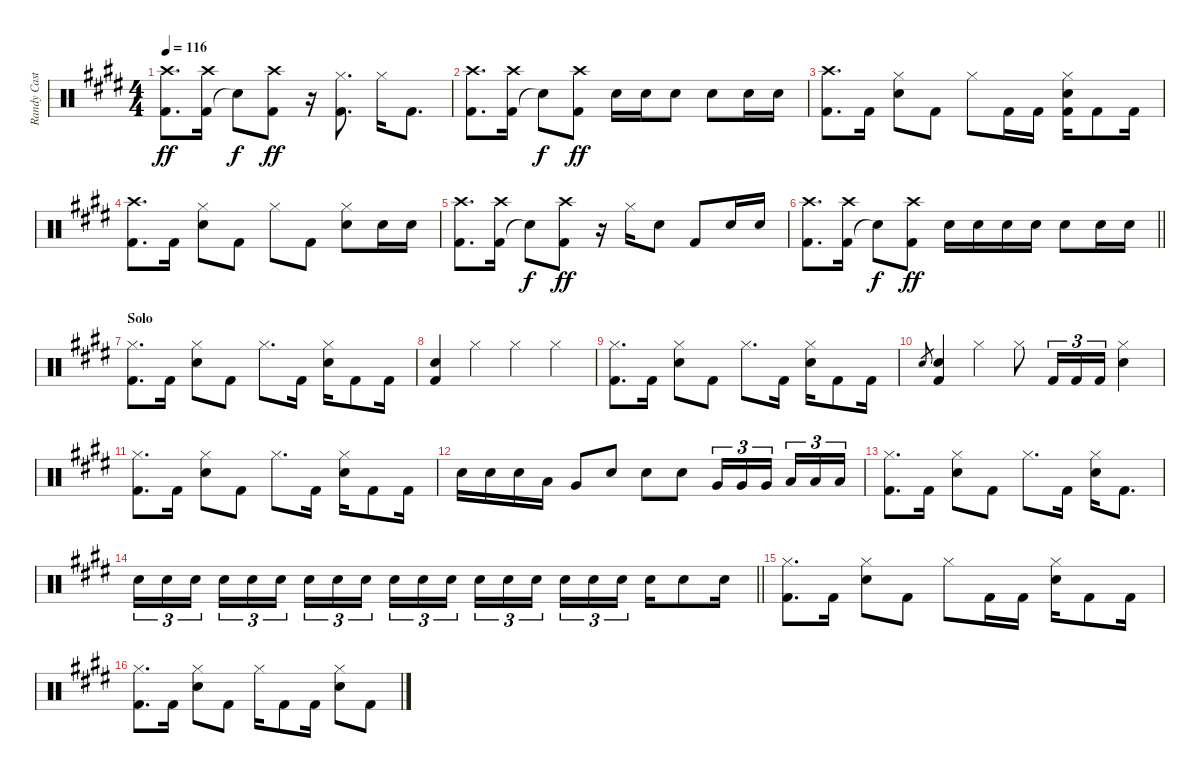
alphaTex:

\track ("Randy Castillo" "Randy Cast") {instrument percussion}
\staff {score}
\articulation defaults
\ts (4 4)
\tempo 116
\clef neutral
\ks e
("Kick (hit) 2" "Crash high (hit)").8{d dy ff} ("Kick (hit) 2" "Crash high (hit)").16 "Snare (hit)"{t}.8{dy f} ("Kick (hit) 2" "Crash high (hit)").8{dy ff} r.16 ("Hi-Hat (closed)" "Kick (hit) 2").8{d} "Hi-Hat (closed)".16 "Kick (hit) 2".8{d} |
("Kick (hit) 2" "Crash high (hit)").8{d} ("Kick (hit) 2" "Crash high (hit)").16 "Snare (hit)"{t}.8{dy f} ("Kick (hit) 2" "Crash high (hit)").8{dy ff} "Snare (hit) 2".16 "Snare (hit) 2".16 "Snare (hit) 2".8 "Snare (hit) 2".8 "Snare (hit) 2".16 "Snare (hit) 2".16 |
("Kick (hit) 2" "Crash high (hit)").8{d} "Kick (hit) 2".16 ("Hi-Hat (closed)" "Snare (hit) 2").8 "Kick (hit) 2".8 "Hi-Hat (closed)".8 "Kick (hit) 2".16 "Kick (hit) 2".16 ("Hi-Hat (closed)" "Snare (hit) 2" "Kick (hit) 2").16 "Kick (hit) 2".8 "Kick (hit) 2".16 |
("Kick (hit) 2" "Crash high (hit)").8{d} "Kick (hit) 2".16 ("Hi-Hat (closed)" "Snare (hit) 2").8 "Kick (hit) 2".8 "Hi-Hat (closed)".8 "Kick (hit) 2".8 ("Hi-Hat (closed)" "Snare (hit) 2").8 "Snare (hit) 2".16 "Snare (hit) 2".16 |
("Kick (hit) 2" "Crash high (hit)").8{d} ("Kick (hit) 2" "Crash high (hit)").16 "Snare (hit)"{t}.8{dy f} ("Kick (hit) 2" "Crash high (hit)").8{dy ff} r.16 "Hi-Hat (closed)".16 "Snare (hit) 2".8 "Kick (hit) 2".8 "Snare (hit) 2".16 "Snare (hit) 2".16 |
\barLineRight lightlight
("Kick (hit) 2" "Crash high (hit)").8{d} ("Kick (hit) 2" "Crash high (hit)").16 "Snare (hit)"{t}.8{dy f} ("Kick (hit) 2" "Crash high (hit)").8{dy ff} "Snare (hit) 2".16 "Snare (hit) 2".16 "Snare (hit) 2".16 "Snare (hit) 2".16 "Snare (hit) 2".8 "Snare (hit) 2".16 "Snare (hit) 2".16 |
\section ("" "Solo")
("Hi-Hat (closed)" "Kick (hit) 2").8{d} "Kick (hit) 2".16 ("Hi-Hat (closed)" "Snare (hit) 2").8 "Kick (hit) 2".8 "Hi-Hat (closed)".8{d} "Kick (hit) 2".16 ("Hi-Hat (closed)" "Snare (hit) 2").16 "Kick (hit) 2".8 "Kick (hit) 2".16 |
("Snare (hit) 2" "Kick (hit) 2").4 "Hi-Hat (closed)".4 "Hi-Hat (closed)".4 "Hi-Hat (closed)".4 |
("Hi-Hat (closed)" "Kick (hit) 2").8{d} "Kick (hit) 2".16 ("Hi-Hat (closed)" "Snare (hit) 2").8 "Kick (hit) 2".8 "Hi-Hat (closed)".8{d} "Kick (hit) 2".16 ("Hi-Hat (closed)" "Snare (hit) 2").16 "Kick (hit) 2".8 "Kick (hit) 2".16 |
"Snare (hit) 2".8{gr} ("Snare (hit) 2" "Kick (hit) 2").4 "Hi-Hat (closed)".4 "Hi-Hat (closed)".8 "Kick (hit) 2".16{tu (3 2)} "Kick (hit) 2".16{tu (3 2)} "Kick (hit) 2".16{tu (3 2)} ("Hi-Hat (closed)" "Snare (hit) 2").4 |
("Hi-Hat (closed)" "Kick (hit) 2").8{d} "Kick (hit) 2".16 ("Hi-Hat (closed)" "Snare (hit) 2").8 "Kick (hit) 2".8 "Hi-Hat (closed)".8{d} "Kick (hit) 2".16 ("Hi-Hat (closed)" "Snare (hit) 2").16 "Kick (hit) 2".8 "Kick (hit) 2".16 |
"Snare (hit) 2".16 "Snare (hit) 2".16 "Snare (hit) 2".16 "Low Tom (hit)".16 "Very Low Tom (hit)".8 "Snare (hit) 2".8 "Snare (hit) 2".8 "Snare (hit) 2".8 "Very Low Tom (hit)".16{tu (3 2)} "Very Low Tom (hit)".16{tu (3 2)} "Very Low Tom (hit)".16{tu (3 2) beam splitsecondary} "Low Floor Tom (hit)".16{tu (3 2)} "Low Floor Tom (hit)".16{tu (3 2)} "Low Floor Tom (hit)".16{tu (3 2)} |
("Hi-Hat (closed)" "Kick (hit) 2").8{d} "Kick (hit) 2".16 ("Hi-Hat (closed)" "Snare (hit) 2").8 "Kick (hit) 2".8 "Hi-Hat (closed)".8{d} "Kick (hit) 2".16 ("Hi-Hat (closed)" "Snare (hit) 2").16 "Kick (hit) 2".8{d} |
\barLineRight lightlight "Snare (hit) 2".16{tu (3 2)} "Snare (hit) 2".16{tu (3 2)} "Snare (hit) 2".16{tu (3 2) beam splitsecondary} "Snare (hit) 2".16{tu (3 2)} "Snare (hit) 2".16{tu (3 2)} "Snare (hit) 2".16{tu (3 2)} "Snare (hit) 2".16{tu (3 2)} "Snare (hit) 2".16{tu (3 2)} "Snare (hit) 2".16{tu (3 2) beam splitsecondary} "Snare (hit) 2".16{tu (3 2)} "Snare (hit) 2".16{tu (3 2)} "Snare (hit) 2".16{tu (3 2)} "Snare (hit) 2".16{tu (3 2)} "Snare (hit) 2".16{tu (3 2)} "Snare (hit) 2".16{tu (3 2) beam splitsecondary} "Snare (hit) 2".16{tu (3 2)} "Snare (hit) 2".16{tu (3 2)} "Snare (hit) 2".16{tu (3 2)} "Snare (hit) 2".16 "Snare (hit) 2".8 "Snare (hit) 2".16
|
("Hi-Hat (closed)" "Kick (hit) 2").8{d} "Kick (hit) 2".16 ("Hi-Hat (closed)" "Snare (hit) 2").8 "Kick (hit) 2".8 "Hi-Hat (closed)".8 "Kick (hit) 2".16 "Kick (hit) 2".16 ("Hi-Hat (closed)" "Snare (hit) 2").16 "Kick (hit) 2".8 "Kick (hit) 2".16 |
("Hi-Hat (closed)" "Kick (hit) 2").8{d} "Kick (hit) 2".16 ("Hi-Hat (closed)" "Snare (hit) 2").8 "Kick (hit) 2".8 "Hi-Hat (closed)".16 "Kick (hit) 2".8 "Kick (hit) 2".16 ("Hi-Hat (closed)" "Snare (hit) 2").8 "Kick (hit) 2".8
